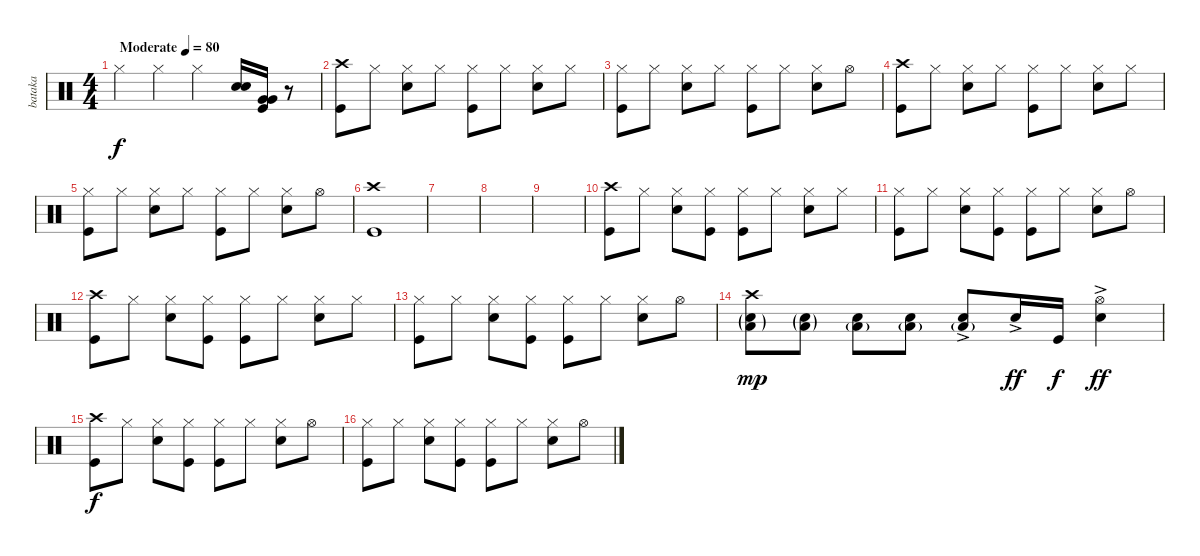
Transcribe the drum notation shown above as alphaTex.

\track ("bataka" "bataka") {instrument percussion}
\staff {score}
\articulation defaults
\ts (4 4)
\tempo (80 "Moderate")
\clef neutral
\ks c "Hi-Hat (closed)".4{dy f} "Hi-Hat (closed)".4 "Hi-Hat (closed)".4
("Electric Snare (hit)" "Electric Snare (hit)").16 ("Very Low Tom (hit)" "Very Low Tom (hit)" "Kick (hit)").16 r.8 |
("Crash high (hit)" "Kick (hit)").8 "Hi-Hat (closed)".8 ("Hi-Hat (closed)" "Electric Snare (hit)").8 "Hi-Hat (closed)".8 ("Hi-Hat (closed)" "Kick (hit)").8 "Hi-Hat (closed)".8 ("Hi-Hat (closed)" "Electric Snare (hit)").8 "Hi-Hat (closed)".8 |
("Hi-Hat (closed)" "Kick (hit)").8 "Hi-Hat (closed)".8 ("Hi-Hat (closed)" "Electric Snare (hit)").8 "Hi-Hat (closed)".8 ("Hi-Hat (closed)" "Kick (hit)").8 "Hi-Hat (closed)".8 ("Hi-Hat (closed)" "Electric Snare (hit)").8 "Hi-Hat (open)".8 |
("Crash high (hit)" "Kick (hit)").8 "Hi-Hat (closed)".8 ("Hi-Hat (closed)" "Electric Snare (hit)").8 "Hi-Hat (closed)".8 ("Hi-Hat (closed)" "Kick (hit)").8 "Hi-Hat (closed)".8 ("Hi-Hat (closed)" "Electric Snare (hit)").8 "Hi-Hat (closed)".8 |
("Hi-Hat (closed)" "Kick (hit)").8 "Hi-Hat (closed)".8 ("Hi-Hat (closed)" "Electric Snare (hit)").8 "Hi-Hat (closed)".8 ("Hi-Hat (closed)" "Kick (hit)").8 "Hi-Hat (closed)".8 ("Hi-Hat (closed)" "Electric Snare (hit)").8 "Hi-Hat (open)".8 |
("Crash high (hit)" "Kick (hit)").1 |
|
|
|
("Crash high (hit)" "Kick (hit)").8 "Hi-Hat (closed)".8 ("Hi-Hat (closed)" "Electric Snare (hit)").8 ("Hi-Hat (closed)" "Kick (hit)").8 ("Hi-Hat (closed)" "Kick (hit)").8 "Hi-Hat (closed)".8 ("Hi-Hat (closed)" "Electric Snare (hit)").8 "Hi-Hat (closed)".8 |
("Hi-Hat (closed)" "Kick (hit)").8 "Hi-Hat (closed)".8 ("Hi-Hat (closed)" "Electric Snare (hit)").8 ("Hi-Hat (closed)" "Kick (hit)").8 ("Hi-Hat (closed)" "Kick (hit)").8 "Hi-Hat (closed)".8 ("Hi-Hat (closed)" "Electric Snare (hit)").8 "Hi-Hat (open)".8 |
("Crash high (hit)" "Kick (hit)").8 "Hi-Hat (closed)".8 ("Hi-Hat (closed)" "Electric Snare (hit)").8 ("Hi-Hat (closed)" "Kick (hit)").8 ("Hi-Hat (closed)" "Kick (hit)").8 "Hi-Hat (closed)".8 ("Hi-Hat (closed)" "Electric Snare (hit)").8 "Hi-Hat (closed)".8 |
("Hi-Hat (closed)" "Kick (hit)").8 "Hi-Hat (closed)".8 ("Hi-Hat (closed)" "Electric Snare (hit)").8 ("Hi-Hat (closed)" "Kick (hit)").8 ("Hi-Hat (closed)" "Kick (hit)").8 "Hi-Hat (closed)".8 ("Hi-Hat (closed)" "Electric Snare (hit)").8 "Hi-Hat (open)".8 |
("Crash high (hit)" "Electric Snare (hit)"{g} "Low Floor Tom (hit)"{g}).8{dy mp} ("Electric Snare (hit)"{g} "Low Floor Tom (hit)"{g}).8 ("Electric Snare (hit)" "Low Floor Tom (hit)"{g}).8 ("Electric Snare (hit)" "Low Floor Tom (hit)"{g}).8 ("Electric Snare (hit)"{ac} "Low Floor Tom (hit)"{g}).8 "Electric Snare (hit)"{ac}.16{dy ff} "Kick (hit)".16{dy f} ("Hi-Hat (open)" "Electric Snare (hit)"{ac}).4{dy ff} |
("Crash high (hit)" "Kick (hit)").8{dy f} "Hi-Hat (closed)".8 ("Hi-Hat (closed)" "Electric Snare (hit)").8 ("Hi-Hat (closed)" "Kick (hit)").8 ("Hi-Hat (closed)" "Kick (hit)").8 "Hi-Hat (closed)".8 ("Hi-Hat (closed)" "Electric Snare (hit)").8 "Hi-Hat (open)".8 |
("Hi-Hat (closed)" "Kick (hit)").8 "Hi-Hat (closed)".8 ("Hi-Hat (closed)" "Electric Snare (hit)").8 ("Hi-Hat (closed)" "Kick (hit)").8 ("Hi-Hat (closed)" "Kick (hit)").8 "Hi-Hat (closed)".8 ("Hi-Hat (closed)" "Electric Snare (hit)").8 "Hi-Hat (open)".8
